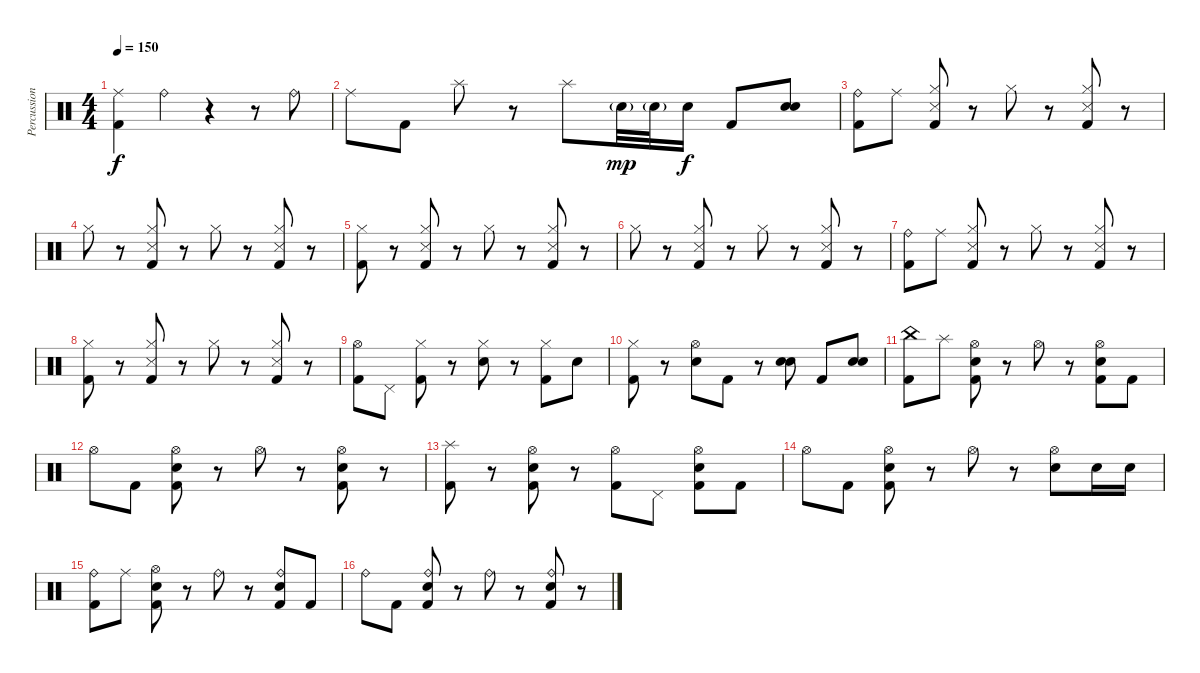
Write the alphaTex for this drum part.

\track ("Percussion" "Percussion") {instrument percussion}
\staff {score}
\articulation defaults
\ts (4 4)
\tempo 150
\clef neutral
\ks c
("Ride (middle)" "Kick (hit) 2").4{dy f} "Ride (bell)".4 r.4 r.8 "Ride (bell)".8 |
"Ride (middle)".8 "Kick (hit) 2".8 "Splash (hit)".8 r.8 "Splash (hit)".8 "Electric Snare (hit)"{g}.32{dy mp} "Electric Snare (hit)"{g}.32 "Electric Snare (hit)".16{dy f} "Kick (hit) 2".8 ("Electric Snare (hit)" "Electric Snare (hit)").8{bu 240} |
("Ride (bell)" "Kick (hit) 2").8 "Ride (middle)".8 ("Hi-Hat (closed)" "Snare (side stick) 3" "Kick (hit) 2").8 r.8 "Hi-Hat (closed)".8 r.8 ("Hi-Hat (closed)" "Snare (side stick) 3" "Kick (hit) 2").8 r.8 |
"Hi-Hat (closed)".8 r.8 ("Hi-Hat (closed)" "Snare (side stick) 3" "Kick (hit) 2").8 r.8 "Hi-Hat (closed)".8 r.8 ("Hi-Hat (closed)" "Snare (side stick) 3" "Kick (hit) 2").8 r.8 |
("Hi-Hat (closed)" "Kick (hit) 2").8 r.8 ("Hi-Hat (closed)" "Snare (side stick) 3" "Kick (hit) 2").8 r.8 "Hi-Hat (closed)".8 r.8 ("Hi-Hat (closed)" "Snare (side stick) 3" "Kick (hit) 2").8 r.8 |
"Hi-Hat (closed)".8 r.8 ("Hi-Hat (closed)" "Snare (side stick) 3" "Kick (hit) 2").8 r.8 "Hi-Hat (closed)".8 r.8 ("Hi-Hat (closed)" "Snare (side stick) 3" "Kick (hit) 2").8 r.8 |
("Ride (bell)" "Kick (hit) 2").8 "Ride (middle)".8 ("Hi-Hat (closed)" "Snare (side stick) 3" "Kick (hit) 2").8 r.8 "Hi-Hat (closed)".8 r.8 ("Hi-Hat (closed)" "Snare (side stick) 3" "Kick (hit) 2").8 r.8 |
("Hi-Hat (closed)" "Kick (hit) 2").8 r.8 ("Hi-Hat (closed)" "Snare (side stick) 3" "Kick (hit) 2").8 r.8 "Hi-Hat (closed)".8 r.8 ("Hi-Hat (closed)" "Snare (side stick) 3" "Kick (hit) 2").8 r.8 |
("Hi-Hat (open)" "Kick (hit) 2").8 "Pedal Hi-Hat (hit)".8 ("Hi-Hat (closed)" "Kick (hit) 2").8 r.8 ("Hi-Hat (closed)" "Electric Snare (hit)").8 r.8 ("Hi-Hat (closed)" "Kick (hit) 2").8 "Electric Snare (hit)".8 |
("Hi-Hat (closed)" "Kick (hit) 2").8 r.8 ("Hi-Hat (open)" "Electric Snare (hit)").8 "Kick (hit) 2".8 r.8 ("Electric Snare (hit)" "Electric Snare (hit)").8{bu 240} "Kick (hit) 2".8 ("Electric Snare (hit)" "Electric Snare (hit)").8{bu 240} |
("China (hit)" "Kick (hit) 2").8 "Splash (hit)".8 ("Hi-Hat (open)" "Electric Snare (hit)" "Kick (hit) 2").8 r.8 "Hi-Hat (open)".8 r.8 ("Hi-Hat (open)" "Electric Snare (hit)" "Kick (hit) 2").8 "Kick (hit) 2".8 |
"Hi-Hat (open)".8 "Kick (hit) 2".8 ("Hi-Hat (open)" "Electric Snare (hit)" "Kick (hit) 2").8 r.8 "Hi-Hat (open)".8 r.8 ("Hi-Hat (open)" "Electric Snare (hit)" "Kick (hit) 2").8 r.8 |
("Splash (hit)" "Kick (hit) 2").8 r.8 ("Hi-Hat (open)" "Electric Snare (hit)" "Kick (hit) 2").8 r.8 ("Hi-Hat (open)" "Kick (hit) 2").8 "Pedal Hi-Hat (hit)".8 ("Hi-Hat (open)" "Electric Snare (hit)" "Kick (hit) 2").8 "Kick (hit) 2".8 |
"Hi-Hat (open)".8 "Kick (hit) 2".8 ("Hi-Hat (open)" "Electric Snare (hit)" "Kick (hit) 2").8 r.8 "Hi-Hat (open)".8 r.8 ("Hi-Hat (open)" "Electric Snare (hit)").8 "Electric Snare (hit)".16 "Electric Snare (hit)".16 |
("Ride (bell)" "Kick (hit) 2").8 "Ride (middle)".8 ("Hi-Hat (open)" "Electric Snare (hit)" "Kick (hit) 2").8 r.8 "Ride (bell)".8 r.8 ("Ride (bell)" "Electric Snare (hit)" "Kick (hit) 2").8 "Kick (hit) 2".8 |
"Ride (bell)".8 "Kick (hit) 2".8 ("Ride (bell)" "Electric Snare (hit)" "Kick (hit) 2").8 r.8 "Ride (bell)".8 r.8 ("Ride (bell)" "Electric Snare (hit)" "Kick (hit) 2").8 r.8
